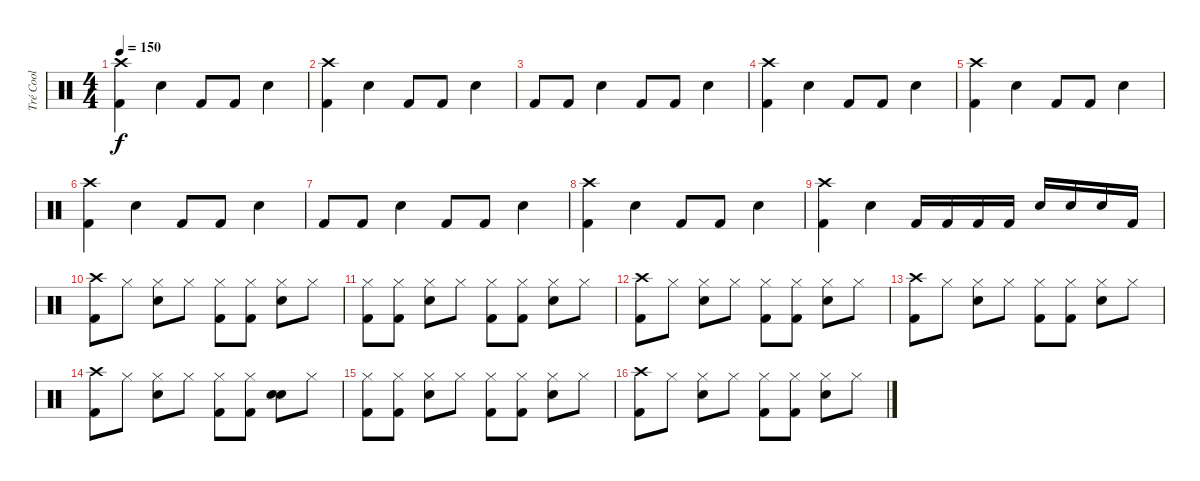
\track ("Tré Cool" "Tré Cool") {instrument percussion}
\staff {score}
\articulation defaults
\ts (4 4)
\tempo 150
\clef neutral
\ks c
("Kick (hit) 2" "Crash high (hit)").4{dy f} "Snare (hit) 2".4 "Kick (hit) 2".8 "Kick (hit) 2".8 "Snare (hit) 2".4 |
("Kick (hit) 2" "Crash high (hit)").4 "Snare (hit) 2".4 "Kick (hit) 2".8 "Kick (hit) 2".8 "Snare (hit) 2".4 |
"Kick (hit) 2".8 "Kick (hit) 2".8 "Snare (hit) 2".4 "Kick (hit) 2".8 "Kick (hit) 2".8 "Snare (hit) 2".4 |
("Kick (hit) 2" "Crash high (hit)").4 "Snare (hit) 2".4 "Kick (hit) 2".8 "Kick (hit) 2".8 "Snare (hit) 2".4 |
("Kick (hit) 2" "Crash high (hit)").4 "Snare (hit) 2".4 "Kick (hit) 2".8 "Kick (hit) 2".8 "Snare (hit) 2".4 |
("Kick (hit) 2" "Crash high (hit)").4 "Snare (hit) 2".4 "Kick (hit) 2".8 "Kick (hit) 2".8 "Snare (hit) 2".4 |
"Kick (hit) 2".8 "Kick (hit) 2".8 "Snare (hit) 2".4 "Kick (hit) 2".8 "Kick (hit) 2".8 "Snare (hit) 2".4 |
("Kick (hit) 2" "Crash high (hit)").4 "Snare (hit) 2".4 "Kick (hit) 2".8 "Kick (hit) 2".8 "Snare (hit) 2".4 |
("Kick (hit) 2" "Crash high (hit)").4 "Snare (hit) 2".4 "Kick (hit) 2".16 "Kick (hit) 2".16 "Kick (hit) 2".16 "Kick (hit) 2".16 "Snare (hit) 2".16 "Snare (hit) 2".16 "Snare (hit) 2".16 "Kick (hit) 2".16 |
("Kick (hit) 2" "Crash high (hit)").8 "Hi-Hat (closed)".8 ("Snare (hit) 2" "Hi-Hat (closed)").8 "Hi-Hat (closed)".8 ("Kick (hit) 2" "Hi-Hat (closed)").8 ("Kick (hit) 2" "Hi-Hat (closed)").8 ("Snare (hit) 2" "Hi-Hat (closed)").8 "Hi-Hat (closed)".8 |
("Kick (hit) 2" "Hi-Hat (closed)").8 ("Kick (hit) 2" "Hi-Hat (closed)").8 ("Snare (hit) 2" "Hi-Hat (closed)").8 "Hi-Hat (closed)".8 ("Kick (hit) 2" "Hi-Hat (closed)").8 ("Kick (hit) 2" "Hi-Hat (closed)").8 ("Snare (hit) 2" "Hi-Hat (closed)").8 "Hi-Hat (closed)".8 |
("Kick (hit) 2" "Crash high (hit)").8 "Hi-Hat (closed)".8 ("Snare (hit) 2" "Hi-Hat (closed)").8 "Hi-Hat (closed)".8 ("Kick (hit) 2" "Hi-Hat (closed)").8 ("Kick (hit) 2" "Hi-Hat (closed)").8 ("Snare (hit) 2" "Hi-Hat (closed)").8 "Hi-Hat (closed)".8 |
("Kick (hit) 2" "Crash high (hit)").8 "Hi-Hat (closed)".8 ("Snare (hit) 2" "Hi-Hat (closed)").8 "Hi-Hat (closed)".8 ("Kick (hit) 2" "Hi-Hat (closed)").8 ("Kick (hit) 2" "Hi-Hat (closed)").8 ("Snare (hit) 2" "Hi-Hat (closed)").8 "Hi-Hat (closed)".8 |
("Kick (hit) 2" "Crash high (hit)").8 "Hi-Hat (closed)".8 ("Snare (hit) 2" "Hi-Hat (closed)").8 "Hi-Hat (closed)".8 ("Kick (hit) 2" "Hi-Hat (closed)").8 ("Kick (hit) 2" "Hi-Hat (closed)").8 ("Snare (hit) 2" "Snare (hit)").8 "Hi-Hat (closed)".8 |
("Kick (hit) 2" "Hi-Hat (closed)").8 ("Kick (hit) 2" "Hi-Hat (closed)").8 ("Snare (hit) 2" "Hi-Hat (closed)").8 "Hi-Hat (closed)".8 ("Kick (hit) 2" "Hi-Hat (closed)").8 ("Kick (hit) 2" "Hi-Hat (closed)").8 ("Snare (hit) 2" "Hi-Hat (closed)").8 "Hi-Hat (closed)".8 |
("Kick (hit) 2" "Crash high (hit)").8 "Hi-Hat (closed)".8 ("Snare (hit) 2" "Hi-Hat (closed)").8 "Hi-Hat (closed)".8 ("Kick (hit) 2" "Hi-Hat (closed)").8 ("Kick (hit) 2" "Hi-Hat (closed)").8 ("Snare (hit) 2" "Hi-Hat (closed)").8 "Hi-Hat (closed)".8
